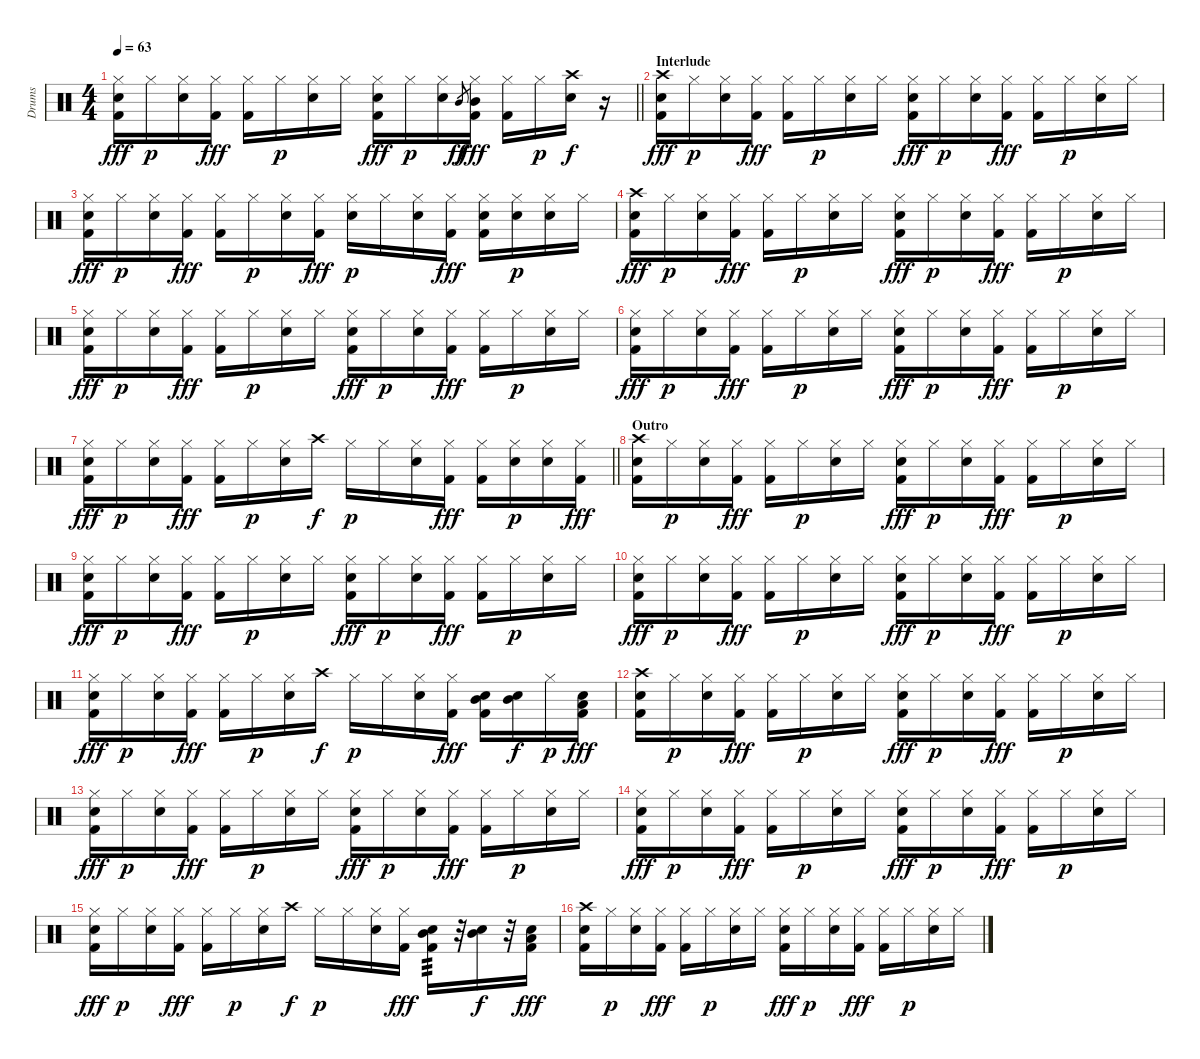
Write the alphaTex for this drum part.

\track ("Drums" "Drums") {instrument percussion}
\staff {score}
\articulation defaults
\ts (4 4)
\tempo 63
\clef neutral
\barLineRight lightlight
\ks c
("Electric Snare (hit)" "Hi-Hat (closed)" "Kick (hit) 2").16{dy fff} "Hi-Hat (closed)".16{dy p} ("Electric Snare (hit)" "Hi-Hat (closed)").16 ("Hi-Hat (closed)" "Kick (hit) 2").16{dy fff} ("Hi-Hat (closed)" "Kick (hit) 2").16 "Hi-Hat (closed)".16{dy p} ("Electric Snare (hit)" "Hi-Hat (closed)").16 "Hi-Hat (closed)".16 ("Electric Snare (hit)" "Hi-Hat (closed)" "Kick (hit) 2").16{dy fff} "Hi-Hat (closed)".16{dy p} ("Electric Snare (hit)" "Hi-Hat (closed)").16 "Mid Tom (hit)".8{gr dy ff} ("Hi-Hat (closed)" "Mid Tom (hit)" "Kick (hit) 2").16{dy fff} ("Hi-Hat (closed)" "Kick (hit) 2").16 "Hi-Hat (closed)".16{dy p} ("Electric Snare (hit)" "Crash high (hit)").16{dy f} r.16 |
\section ("" "Interlude")
("Electric Snare (hit)" "Crash high (hit)" "Kick (hit) 2").16{dy fff} "Hi-Hat (closed)".16{dy p} ("Electric Snare (hit)" "Hi-Hat (closed)").16 ("Hi-Hat (closed)" "Kick (hit) 2").16{dy fff} ("Hi-Hat (closed)" "Kick (hit) 2").16 "Hi-Hat (closed)".16{dy p} ("Electric Snare (hit)" "Hi-Hat (closed)").16 "Hi-Hat (closed)".16 ("Electric Snare (hit)" "Hi-Hat (closed)" "Kick (hit) 2").16{dy fff} "Hi-Hat (closed)".16{dy p} ("Electric Snare (hit)" "Hi-Hat (closed)").16 ("Hi-Hat (closed)" "Kick (hit) 2").16{dy fff} ("Hi-Hat (closed)" "Kick (hit) 2").16 "Hi-Hat (closed)".16{dy p} ("Electric Snare (hit)" "Hi-Hat (closed)").16 "Hi-Hat (closed)".16 |
("Electric Snare (hit)" "Hi-Hat (closed)" "Kick (hit) 2").16{dy fff} "Hi-Hat (closed)".16{dy p} ("Electric Snare (hit)" "Hi-Hat (closed)").16 ("Hi-Hat (closed)" "Kick (hit) 2").16{dy fff} ("Hi-Hat (closed)" "Kick (hit) 2").16 "Hi-Hat (closed)".16{dy p} ("Electric Snare (hit)" "Hi-Hat (closed)").16 ("Hi-Hat (closed)" "Kick (hit) 2").16{dy fff} ("Electric Snare (hit)" "Hi-Hat (closed)").16{dy p} "Hi-Hat (closed)".16 ("Electric Snare (hit)" "Hi-Hat (closed)").16 ("Hi-Hat (closed)" "Kick (hit) 2").16{dy fff} ("Electric Snare (hit)" "Hi-Hat (closed)" "Kick (hit) 2").16 ("Electric Snare (hit)" "Hi-Hat (closed)").16{dy p} ("Electric Snare (hit)" "Hi-Hat (closed)").16 "Hi-Hat (closed)".16 |
("Electric Snare (hit)" "Crash high (hit)" "Kick (hit) 2").16{dy fff} "Hi-Hat (closed)".16{dy p} ("Electric Snare (hit)" "Hi-Hat (closed)").16 ("Hi-Hat (closed)" "Kick (hit) 2").16{dy fff} ("Hi-Hat (closed)" "Kick (hit) 2").16 "Hi-Hat (closed)".16{dy p} ("Electric Snare (hit)" "Hi-Hat (closed)").16 "Hi-Hat (closed)".16 ("Electric Snare (hit)" "Hi-Hat (closed)" "Kick (hit) 2").16{dy fff} "Hi-Hat (closed)".16{dy p} ("Electric Snare (hit)" "Hi-Hat (closed)").16 ("Hi-Hat (closed)" "Kick (hit) 2").16{dy fff} ("Hi-Hat (closed)" "Kick (hit) 2").16 "Hi-Hat (closed)".16{dy p} ("Electric Snare (hit)" "Hi-Hat (closed)").16 "Hi-Hat (closed)".16 |
("Electric Snare (hit)" "Hi-Hat (closed)" "Kick (hit) 2").16{dy fff} "Hi-Hat (closed)".16{dy p} ("Electric Snare (hit)" "Hi-Hat (closed)").16 ("Hi-Hat (closed)" "Kick (hit) 2").16{dy fff} ("Hi-Hat (closed)" "Kick (hit) 2").16 "Hi-Hat (closed)".16{dy p} ("Electric Snare (hit)" "Hi-Hat (closed)").16 "Hi-Hat (closed)".16 ("Electric Snare (hit)" "Hi-Hat (closed)" "Kick (hit) 2").16{dy fff} "Hi-Hat (closed)".16{dy p} ("Electric Snare (hit)" "Hi-Hat (closed)").16 ("Hi-Hat (closed)" "Kick (hit) 2").16{dy fff} ("Hi-Hat (closed)" "Kick (hit) 2").16 "Hi-Hat (closed)".16{dy p} ("Electric Snare (hit)" "Hi-Hat (closed)").16 "Hi-Hat (closed)".16 |
("Electric Snare (hit)" "Hi-Hat (closed)" "Kick (hit) 2").16{dy fff} "Hi-Hat (closed)".16{dy p} ("Electric Snare (hit)" "Hi-Hat (closed)").16 ("Hi-Hat (closed)" "Kick (hit) 2").16{dy fff} ("Hi-Hat (closed)" "Kick (hit) 2").16 "Hi-Hat (closed)".16{dy p} ("Electric Snare (hit)" "Hi-Hat (closed)").16 "Hi-Hat (closed)".16 ("Electric Snare (hit)" "Hi-Hat (closed)" "Kick (hit) 2").16{dy fff} "Hi-Hat (closed)".16{dy p} ("Electric Snare (hit)" "Hi-Hat (closed)").16 ("Hi-Hat (closed)" "Kick (hit) 2").16{dy fff} ("Hi-Hat (closed)" "Kick (hit) 2").16 "Hi-Hat (closed)".16{dy p} ("Electric Snare (hit)" "Hi-Hat (closed)").16 "Hi-Hat (closed)".16 |
\barLineRight lightlight
("Electric Snare (hit)" "Hi-Hat (closed)" "Kick (hit) 2").16{dy fff} "Hi-Hat (closed)".16{dy p} ("Electric Snare (hit)" "Hi-Hat (closed)").16 ("Hi-Hat (closed)" "Kick (hit) 2").16{dy fff} ("Hi-Hat (closed)" "Kick (hit) 2").16 "Hi-Hat (closed)".16{dy p} ("Electric Snare (hit)" "Hi-Hat (closed)").16 "Crash high (hit)".16{dy f} "Hi-Hat (closed)".16{dy p} "Hi-Hat (closed)".16 ("Electric Snare (hit)" "Hi-Hat (closed)").16 ("Hi-Hat (closed)" "Kick (hit) 2").16{dy fff} ("Hi-Hat (closed)" "Kick (hit) 2").16 ("Electric Snare (hit)" "Hi-Hat (closed)").16{dy p} ("Electric Snare (hit)" "Hi-Hat (closed)").16 ("Hi-Hat (closed)" "Kick (hit) 2").16{dy fff} |
\section ("" "Outro")
("Electric Snare (hit)" "Crash high (hit)" "Kick (hit) 2").16{volume 8} "Hi-Hat (closed)".16{dy p} ("Electric Snare (hit)" "Hi-Hat (closed)").16 ("Hi-Hat (closed)" "Kick (hit) 2").16{dy fff} ("Hi-Hat (closed)" "Kick (hit) 2").16 "Hi-Hat (closed)".16{dy p} ("Electric Snare (hit)" "Hi-Hat (closed)").16 "Hi-Hat (closed)".16 ("Electric Snare (hit)" "Hi-Hat (closed)" "Kick (hit) 2").16{dy fff} "Hi-Hat (closed)".16{dy p} ("Electric Snare (hit)" "Hi-Hat (closed)").16 ("Hi-Hat (closed)" "Kick (hit) 2").16{dy fff} ("Hi-Hat (closed)" "Kick (hit) 2").16 "Hi-Hat (closed)".16{dy p} ("Electric Snare (hit)" "Hi-Hat (closed)").16 "Hi-Hat (closed)".16 |
("Electric Snare (hit)" "Hi-Hat (closed)" "Kick (hit) 2").16{dy fff} "Hi-Hat (closed)".16{dy p} ("Electric Snare (hit)" "Hi-Hat (closed)").16 ("Hi-Hat (closed)" "Kick (hit) 2").16{dy fff} ("Hi-Hat (closed)" "Kick (hit) 2").16 "Hi-Hat (closed)".16{dy p} ("Electric Snare (hit)" "Hi-Hat (closed)").16 "Hi-Hat (closed)".16 ("Electric Snare (hit)" "Hi-Hat (closed)" "Kick (hit) 2").16{dy fff} "Hi-Hat (closed)".16{dy p} ("Electric Snare (hit)" "Hi-Hat (closed)").16 ("Hi-Hat (closed)" "Kick (hit) 2").16{dy fff} ("Hi-Hat (closed)" "Kick (hit) 2").16 "Hi-Hat (closed)".16{dy p} ("Electric Snare (hit)" "Hi-Hat (closed)").16 "Hi-Hat (closed)".16 |
("Electric Snare (hit)" "Hi-Hat (closed)" "Kick (hit) 2").16{dy fff} "Hi-Hat (closed)".16{dy p} ("Electric Snare (hit)" "Hi-Hat (closed)").16 ("Hi-Hat (closed)" "Kick (hit) 2").16{dy fff} ("Hi-Hat (closed)" "Kick (hit) 2").16 "Hi-Hat (closed)".16{dy p} ("Electric Snare (hit)" "Hi-Hat (closed)").16 "Hi-Hat (closed)".16 ("Electric Snare (hit)" "Hi-Hat (closed)" "Kick (hit) 2").16{dy fff} "Hi-Hat (closed)".16{dy p} ("Electric Snare (hit)" "Hi-Hat (closed)").16 ("Hi-Hat (closed)" "Kick (hit) 2").16{dy fff} ("Hi-Hat (closed)" "Kick (hit) 2").16 "Hi-Hat (closed)".16{dy p} ("Electric Snare (hit)" "Hi-Hat (closed)").16 "Hi-Hat (closed)".16 |
("Electric Snare (hit)" "Hi-Hat (closed)" "Kick (hit) 2").16{dy fff} "Hi-Hat (closed)".16{dy p} ("Electric Snare (hit)" "Hi-Hat (closed)").16 ("Hi-Hat (closed)" "Kick (hit) 2").16{dy fff} ("Hi-Hat (closed)" "Kick (hit) 2").16 "Hi-Hat (closed)".16{dy p} ("Electric Snare (hit)" "Hi-Hat (closed)").16 "Crash high (hit)".16{dy f} "Hi-Hat (closed)".16{dy p} "Hi-Hat (closed)".16 ("Electric Snare (hit)" "Hi-Hat (closed)").16 ("Hi-Hat (closed)" "Kick (hit) 2").16{dy fff} ("Electric Snare (hit)" "Mid Tom (hit)" "Kick (hit) 2").16 ("Electric Snare (hit)" "Mid Tom (hit)").16{dy f} "Hi-Hat (closed)".16{dy p} ("Electric Snare (hit)" "Low Tom (hit)" "Kick (hit) 2").16{dy fff} |
("Electric Snare (hit)" "Crash high (hit)" "Kick (hit) 2").16{volume 2} "Hi-Hat (closed)".16{dy p} ("Electric Snare (hit)" "Hi-Hat (closed)").16 ("Hi-Hat (closed)" "Kick (hit) 2").16{dy fff} ("Hi-Hat (closed)" "Kick (hit) 2").16 "Hi-Hat (closed)".16{dy p} ("Electric Snare (hit)" "Hi-Hat (closed)").16 "Hi-Hat (closed)".16 ("Electric Snare (hit)" "Hi-Hat (closed)" "Kick (hit) 2").16{dy fff} "Hi-Hat (closed)".16{dy p} ("Electric Snare (hit)" "Hi-Hat (closed)").16 ("Hi-Hat (closed)" "Kick (hit) 2").16{dy fff} ("Hi-Hat (closed)" "Kick (hit) 2").16 "Hi-Hat (closed)".16{dy p} ("Electric Snare (hit)" "Hi-Hat (closed)").16 "Hi-Hat (closed)".16 |
("Electric Snare (hit)" "Hi-Hat (closed)" "Kick (hit) 2").16{dy fff} "Hi-Hat (closed)".16{dy p} ("Electric Snare (hit)" "Hi-Hat (closed)").16 ("Hi-Hat (closed)" "Kick (hit) 2").16{dy fff} ("Hi-Hat (closed)" "Kick (hit) 2").16 "Hi-Hat (closed)".16{dy p} ("Electric Snare (hit)" "Hi-Hat (closed)").16 "Hi-Hat (closed)".16 ("Electric Snare (hit)" "Hi-Hat (closed)" "Kick (hit) 2").16{dy fff} "Hi-Hat (closed)".16{dy p} ("Electric Snare (hit)" "Hi-Hat (closed)").16 ("Hi-Hat (closed)" "Kick (hit) 2").16{dy fff} ("Hi-Hat (closed)" "Kick (hit) 2").16 "Hi-Hat (closed)".16{dy p} ("Electric Snare (hit)" "Hi-Hat (closed)").16 "Hi-Hat (closed)".16 |
("Electric Snare (hit)" "Hi-Hat (closed)" "Kick (hit) 2").16{dy fff} "Hi-Hat (closed)".16{dy p} ("Electric Snare (hit)" "Hi-Hat (closed)").16 ("Hi-Hat (closed)" "Kick (hit) 2").16{dy fff} ("Hi-Hat (closed)" "Kick (hit) 2").16 "Hi-Hat (closed)".16{dy p} ("Electric Snare (hit)" "Hi-Hat (closed)").16 "Hi-Hat (closed)".16 ("Electric Snare (hit)" "Hi-Hat (closed)" "Kick (hit) 2").16{dy fff} "Hi-Hat (closed)".16{dy p} ("Electric Snare (hit)" "Hi-Hat (closed)").16 ("Hi-Hat (closed)" "Kick (hit) 2").16{dy fff} ("Hi-Hat (closed)" "Kick (hit) 2").16 "Hi-Hat (closed)".16{dy p} ("Electric Snare (hit)" "Hi-Hat (closed)").16 "Hi-Hat (closed)".16 |
("Electric Snare (hit)" "Hi-Hat (closed)" "Kick (hit) 2").16{dy fff} "Hi-Hat (closed)".16{dy p} ("Electric Snare (hit)" "Hi-Hat (closed)").16 ("Hi-Hat (closed)" "Kick (hit) 2").16{dy fff} ("Hi-Hat (closed)" "Kick (hit) 2").16 "Hi-Hat (closed)".16{dy p} ("Electric Snare (hit)" "Hi-Hat (closed)").16 "Crash high (hit)".16{dy f} "Hi-Hat (closed)".16{dy p} "Hi-Hat (closed)".16 ("Electric Snare (hit)" "Hi-Hat (closed)").16 ("Hi-Hat (closed)" "Kick (hit) 2").16{dy fff} ("Electric Snare (hit)" "Mid Tom (hit)" "Kick (hit) 2").16{tp 3} r.32 ("Electric Snare (hit)" "Mid Tom (hit)").16{dy f} r.32 ("Electric Snare (hit)" "Low Tom (hit)" "Kick (hit) 2").16{dy fff} |
("Electric Snare (hit)" "Crash high (hit)" "Kick (hit) 2").16{volume 0} "Hi-Hat (closed)".16{dy p} ("Electric Snare (hit)" "Hi-Hat (closed)").16 ("Hi-Hat (closed)" "Kick (hit) 2").16{dy fff} ("Hi-Hat (closed)" "Kick (hit) 2").16 "Hi-Hat (closed)".16{dy p} ("Electric Snare (hit)" "Hi-Hat (closed)").16 "Hi-Hat (closed)".16 ("Electric Snare (hit)" "Hi-Hat (closed)" "Kick (hit) 2").16{dy fff} "Hi-Hat (closed)".16{dy p} ("Electric Snare (hit)" "Hi-Hat (closed)").16 ("Hi-Hat (closed)" "Kick (hit) 2").16{dy fff} ("Hi-Hat (closed)" "Kick (hit) 2").16 "Hi-Hat (closed)".16{dy p} ("Electric Snare (hit)" "Hi-Hat (closed)").16 "Hi-Hat (closed)".16
